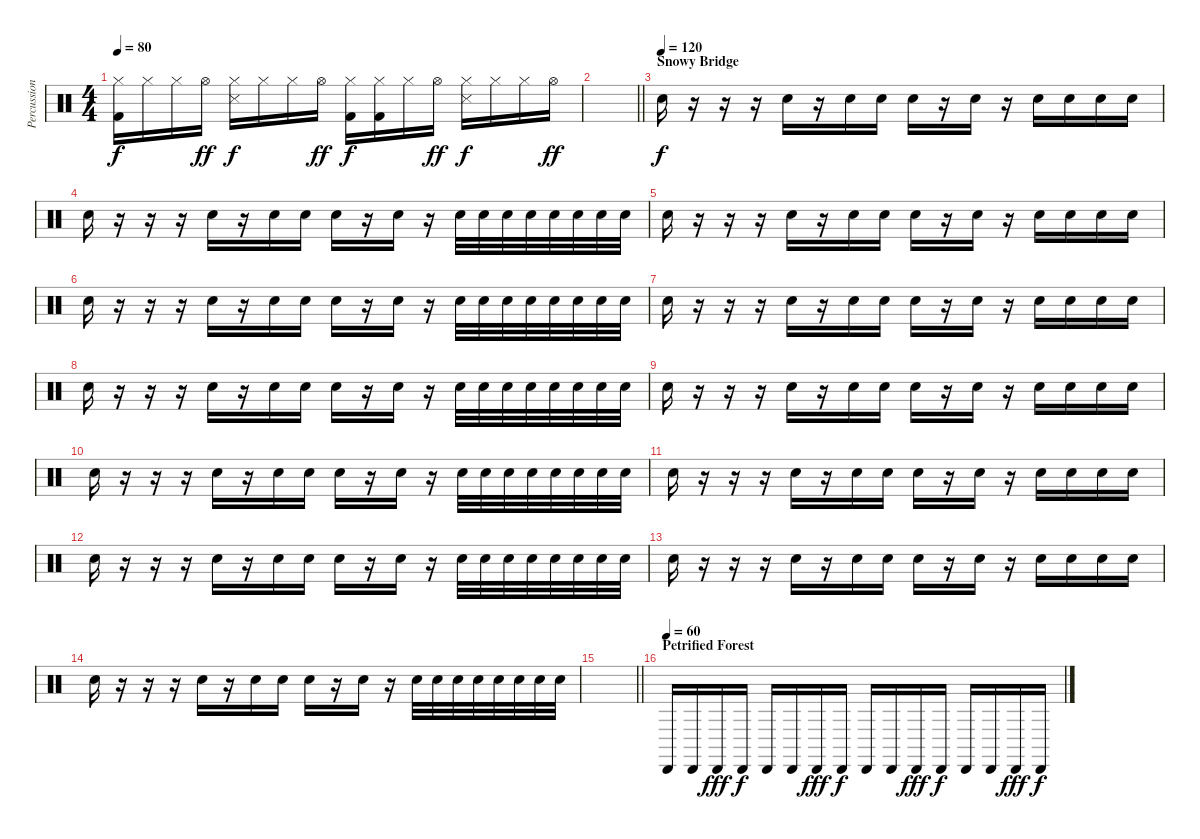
\track ("Percussion" "Percussion") {instrument percussion}
\staff {score}
\articulation defaults
\ts (4 4)
\tempo 80
\clef neutral
\ks c
("Hi-Hat (closed)" "Kick (hit) 2").16{dy f} "Hi-Hat (closed)".16 "Hi-Hat (closed)".16 "Hi-Hat (open)".16{dy ff} ("Hi-Hat (closed)" "Snare (side stick) 3").16{dy f} "Hi-Hat (closed)".16 "Hi-Hat (closed)".16 "Hi-Hat (open)".16{dy ff} ("Hi-Hat (closed)" "Kick (hit) 2").16{dy f} ("Hi-Hat (closed)" "Kick (hit) 2").16 "Hi-Hat (closed)".16 "Hi-Hat (open)".16{dy ff} ("Hi-Hat (closed)" "Snare (side stick) 3").16{dy f} "Hi-Hat (closed)".16 "Hi-Hat (closed)".16 "Hi-Hat (open)".16{dy ff} |
\barLineRight lightlight
|
\section ("" "Snowy Bridge")
\tempo (120)
"Snare (hit) 2".16{dy f} r.16 r.16 r.16 "Snare (hit) 2".16 r.16 "Snare (hit) 2".16 "Snare (hit) 2".16 "Snare (hit) 2".16 r.16 "Snare (hit) 2".16 r.16 "Snare (hit) 2".16 "Snare (hit) 2".16 "Snare (hit) 2".16 "Snare (hit) 2".16 |
"Snare (hit) 2".16 r.16 r.16 r.16 "Snare (hit) 2".16 r.16 "Snare (hit) 2".16 "Snare (hit) 2".16 "Snare (hit) 2".16 r.16 "Snare (hit) 2".16 r.16 "Snare (hit) 2".32 "Snare (hit) 2".32 "Snare (hit) 2".32 "Snare (hit) 2".32 "Snare (hit) 2".32 "Snare (hit) 2".32 "Snare (hit) 2".32 "Snare (hit) 2".32 |
"Snare (hit) 2".16 r.16 r.16 r.16 "Snare (hit) 2".16 r.16 "Snare (hit) 2".16 "Snare (hit) 2".16 "Snare (hit) 2".16 r.16 "Snare (hit) 2".16 r.16 "Snare (hit) 2".16 "Snare (hit) 2".16 "Snare (hit) 2".16 "Snare (hit) 2".16 |
"Snare (hit) 2".16 r.16 r.16 r.16 "Snare (hit) 2".16 r.16 "Snare (hit) 2".16 "Snare (hit) 2".16 "Snare (hit) 2".16 r.16 "Snare (hit) 2".16 r.16 "Snare (hit) 2".32 "Snare (hit) 2".32 "Snare (hit) 2".32 "Snare (hit) 2".32 "Snare (hit) 2".32 "Snare (hit) 2".32 "Snare (hit) 2".32 "Snare (hit) 2".32 |
"Snare (hit) 2".16 r.16 r.16 r.16 "Snare (hit) 2".16 r.16 "Snare (hit) 2".16 "Snare (hit) 2".16 "Snare (hit) 2".16 r.16 "Snare (hit) 2".16 r.16 "Snare (hit) 2".16 "Snare (hit) 2".16 "Snare (hit) 2".16 "Snare (hit) 2".16 |
"Snare (hit) 2".16 r.16 r.16 r.16 "Snare (hit) 2".16 r.16 "Snare (hit) 2".16 "Snare (hit) 2".16 "Snare (hit) 2".16 r.16 "Snare (hit) 2".16 r.16 "Snare (hit) 2".32 "Snare (hit) 2".32 "Snare (hit) 2".32 "Snare (hit) 2".32 "Snare (hit) 2".32 "Snare (hit) 2".32 "Snare (hit) 2".32 "Snare (hit) 2".32 |
"Snare (hit) 2".16 r.16 r.16 r.16 "Snare (hit) 2".16 r.16 "Snare (hit) 2".16 "Snare (hit) 2".16 "Snare (hit) 2".16 r.16 "Snare (hit) 2".16 r.16 "Snare (hit) 2".16 "Snare (hit) 2".16 "Snare (hit) 2".16 "Snare (hit) 2".16 |
"Snare (hit) 2".16 r.16 r.16 r.16 "Snare (hit) 2".16 r.16 "Snare (hit) 2".16 "Snare (hit) 2".16 "Snare (hit) 2".16 r.16 "Snare (hit) 2".16 r.16 "Snare (hit) 2".32 "Snare (hit) 2".32 "Snare (hit) 2".32 "Snare (hit) 2".32 "Snare (hit) 2".32 "Snare (hit) 2".32 "Snare (hit) 2".32 "Snare (hit) 2".32 |
"Snare (hit) 2".16 r.16 r.16 r.16 "Snare (hit) 2".16 r.16 "Snare (hit) 2".16 "Snare (hit) 2".16 "Snare (hit) 2".16 r.16 "Snare (hit) 2".16 r.16 "Snare (hit) 2".16 "Snare (hit) 2".16 "Snare (hit) 2".16 "Snare (hit) 2".16 |
"Snare (hit) 2".16 r.16 r.16 r.16 "Snare (hit) 2".16 r.16 "Snare (hit) 2".16 "Snare (hit) 2".16 "Snare (hit) 2".16 r.16 "Snare (hit) 2".16 r.16 "Snare (hit) 2".32 "Snare (hit) 2".32 "Snare (hit) 2".32 "Snare (hit) 2".32 "Snare (hit) 2".32 "Snare (hit) 2".32 "Snare (hit) 2".32 "Snare (hit) 2".32 |
"Snare (hit) 2".16 r.16 r.16 r.16 "Snare (hit) 2".16 r.16 "Snare (hit) 2".16 "Snare (hit) 2".16 "Snare (hit) 2".16 r.16 "Snare (hit) 2".16 r.16 "Snare (hit) 2".16 "Snare (hit) 2".16 "Snare (hit) 2".16 "Snare (hit) 2".16 |
"Snare (hit) 2".16 r.16 r.16 r.16 "Snare (hit) 2".16 r.16 "Snare (hit) 2".16 "Snare (hit) 2".16 "Snare (hit) 2".16 r.16 "Snare (hit) 2".16 r.16 "Snare (hit) 2".32 "Snare (hit) 2".32 "Snare (hit) 2".32 "Snare (hit) 2".32 "Snare (hit) 2".32 "Snare (hit) 2".32 "Snare (hit) 2".32 "Snare (hit) 2".32 |
\barLineRight lightlight
|
\section ("" "Petrified Forest")
\tempo (60)
"Cabasa (hit)".16 "Cabasa (hit)".16 "Cabasa (hit)".16{dy fff} "Cabasa (hit)".16{dy f} "Cabasa (hit)".16 "Cabasa (hit)".16 "Cabasa (hit)".16{dy fff} "Cabasa (hit)".16{dy f} "Cabasa (hit)".16 "Cabasa (hit)".16 "Cabasa (hit)".16{dy fff} "Cabasa (hit)".16{dy f} "Cabasa (hit)".16 "Cabasa (hit)".16 "Cabasa (hit)".16{dy fff} "Cabasa (hit)".16{dy f}
